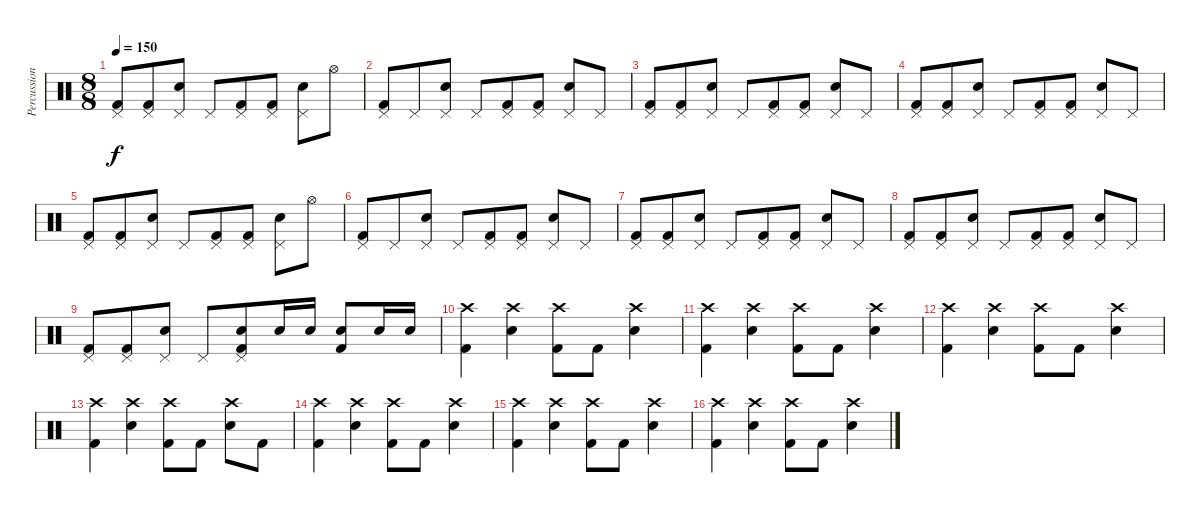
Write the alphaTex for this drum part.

\track ("Percussion" "Percussion") {instrument percussion}
\staff {score}
\articulation defaults
\ts (8 8)
\tempo 150
\clef neutral
\ks c
("Pedal Hi-Hat (hit)" "Kick (hit) 2").8{dy f} ("Pedal Hi-Hat (hit)" "Kick (hit) 2").8 ("Pedal Hi-Hat (hit)" "Snare (hit) 2").8 "Pedal Hi-Hat (hit)".8 ("Pedal Hi-Hat (hit)" "Kick (hit) 2").8 ("Pedal Hi-Hat (hit)" "Kick (hit) 2").8 ("Pedal Hi-Hat (hit)" "Snare (hit) 2").8 "Hi-Hat (open)".8 |
("Pedal Hi-Hat (hit)" "Kick (hit) 2").8 "Pedal Hi-Hat (hit)".8 ("Pedal Hi-Hat (hit)" "Snare (hit) 2").8 "Pedal Hi-Hat (hit)".8 ("Pedal Hi-Hat (hit)" "Kick (hit) 2").8 ("Pedal Hi-Hat (hit)" "Kick (hit) 2").8 ("Pedal Hi-Hat (hit)" "Snare (hit) 2").8 "Pedal Hi-Hat (hit)".8 |
("Pedal Hi-Hat (hit)" "Kick (hit) 2").8 ("Pedal Hi-Hat (hit)" "Kick (hit) 2").8 ("Pedal Hi-Hat (hit)" "Snare (hit) 2").8 "Pedal Hi-Hat (hit)".8 ("Pedal Hi-Hat (hit)" "Kick (hit) 2").8 ("Pedal Hi-Hat (hit)" "Kick (hit) 2").8 ("Pedal Hi-Hat (hit)" "Snare (hit) 2").8 "Pedal Hi-Hat (hit)".8 |
("Pedal Hi-Hat (hit)" "Kick (hit) 2").8 ("Pedal Hi-Hat (hit)" "Kick (hit) 2").8 ("Pedal Hi-Hat (hit)" "Snare (hit) 2").8 "Pedal Hi-Hat (hit)".8 ("Pedal Hi-Hat (hit)" "Kick (hit) 2").8 ("Pedal Hi-Hat (hit)" "Kick (hit) 2").8 ("Pedal Hi-Hat (hit)" "Snare (hit) 2").8 "Pedal Hi-Hat (hit)".8 |
("Pedal Hi-Hat (hit)" "Kick (hit) 2").8 ("Pedal Hi-Hat (hit)" "Kick (hit) 2").8 ("Pedal Hi-Hat (hit)" "Snare (hit) 2").8 "Pedal Hi-Hat (hit)".8 ("Pedal Hi-Hat (hit)" "Kick (hit) 2").8 ("Pedal Hi-Hat (hit)" "Kick (hit) 2").8 ("Pedal Hi-Hat (hit)" "Snare (hit) 2").8 "Hi-Hat (open)".8 |
("Pedal Hi-Hat (hit)" "Kick (hit) 2").8 "Pedal Hi-Hat (hit)".8 ("Pedal Hi-Hat (hit)" "Snare (hit) 2").8 "Pedal Hi-Hat (hit)".8 ("Pedal Hi-Hat (hit)" "Kick (hit) 2").8 ("Pedal Hi-Hat (hit)" "Kick (hit) 2").8 ("Pedal Hi-Hat (hit)" "Snare (hit) 2").8 "Pedal Hi-Hat (hit)".8 |
("Pedal Hi-Hat (hit)" "Kick (hit) 2").8 ("Pedal Hi-Hat (hit)" "Kick (hit) 2").8 ("Pedal Hi-Hat (hit)" "Snare (hit) 2").8 "Pedal Hi-Hat (hit)".8 ("Pedal Hi-Hat (hit)" "Kick (hit) 2").8 ("Pedal Hi-Hat (hit)" "Kick (hit) 2").8 ("Pedal Hi-Hat (hit)" "Snare (hit) 2").8 "Pedal Hi-Hat (hit)".8 |
("Pedal Hi-Hat (hit)" "Kick (hit) 2").8 ("Pedal Hi-Hat (hit)" "Kick (hit) 2").8 ("Pedal Hi-Hat (hit)" "Snare (hit) 2").8 "Pedal Hi-Hat (hit)".8 ("Pedal Hi-Hat (hit)" "Kick (hit) 2").8 ("Pedal Hi-Hat (hit)" "Kick (hit) 2").8 ("Pedal Hi-Hat (hit)" "Snare (hit) 2").8 "Pedal Hi-Hat (hit)".8 |
("Pedal Hi-Hat (hit)" "Kick (hit) 2").8 ("Pedal Hi-Hat (hit)" "Kick (hit) 2").8 ("Pedal Hi-Hat (hit)" "Snare (hit) 2").8 "Pedal Hi-Hat (hit)".8 ("Pedal Hi-Hat (hit)" "Snare (hit) 2" "Kick (hit) 2").8 "Snare (hit) 2".16 "Snare (hit) 2".16 ("Snare (hit) 2" "Kick (hit) 2").8 "Snare (hit) 2".16 "Snare (hit) 2".16 |
("Crash high (hit)" "Kick (hit) 2").4 ("Crash high (hit)" "Snare (hit) 2").4 ("Crash high (hit)" "Kick (hit) 2").8 "Kick (hit) 2".8 ("Crash high (hit)" "Snare (hit) 2").4 |
("Crash high (hit)" "Kick (hit) 2").4 ("Crash high (hit)" "Snare (hit) 2").4 ("Crash high (hit)" "Kick (hit) 2").8 "Kick (hit) 2".8 ("Crash high (hit)" "Snare (hit) 2").4 |
("Crash high (hit)" "Kick (hit) 2").4 ("Crash high (hit)" "Snare (hit) 2").4 ("Crash high (hit)" "Kick (hit) 2").8 "Kick (hit) 2".8 ("Crash high (hit)" "Snare (hit) 2").4 |
("Crash high (hit)" "Kick (hit) 2").4 ("Crash high (hit)" "Snare (hit) 2").4 ("Crash high (hit)" "Kick (hit) 2").8 "Kick (hit) 2".8 ("Crash high (hit)" "Snare (hit) 2").8 "Kick (hit) 2".8 |
("Crash high (hit)" "Kick (hit) 2").4 ("Crash high (hit)" "Snare (hit) 2").4 ("Crash high (hit)" "Kick (hit) 2").8 "Kick (hit) 2".8 ("Crash high (hit)" "Snare (hit) 2").4 |
("Crash high (hit)" "Kick (hit) 2").4 ("Crash high (hit)" "Snare (hit) 2").4 ("Crash high (hit)" "Kick (hit) 2").8 "Kick (hit) 2".8 ("Crash high (hit)" "Snare (hit) 2").4 |
("Crash high (hit)" "Kick (hit) 2").4 ("Crash high (hit)" "Snare (hit) 2").4 ("Crash high (hit)" "Kick (hit) 2").8 "Kick (hit) 2".8 ("Crash high (hit)" "Snare (hit) 2").4
